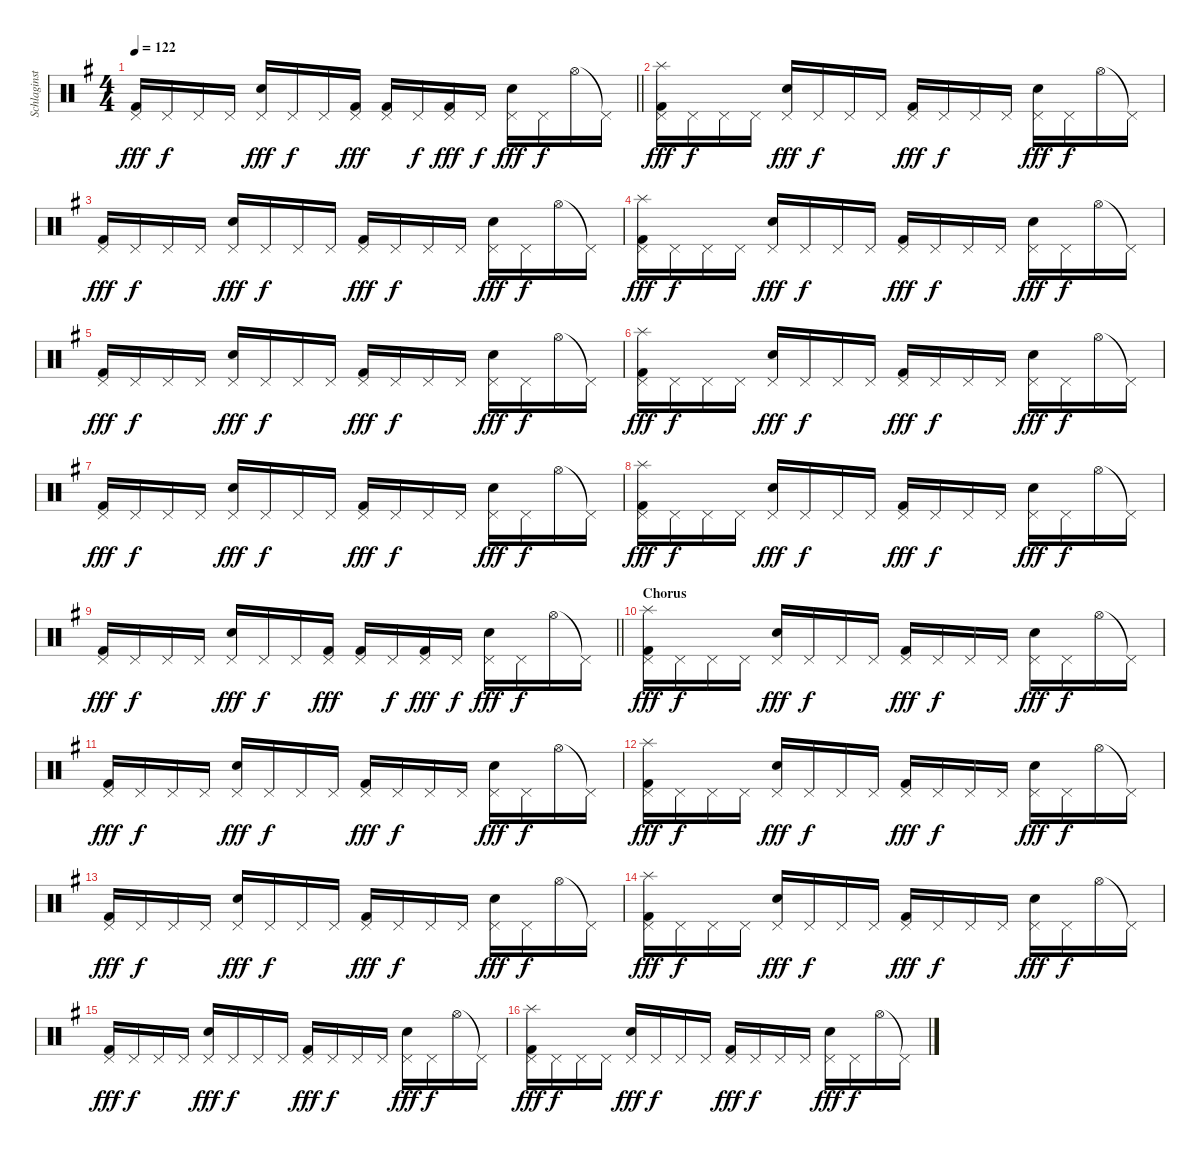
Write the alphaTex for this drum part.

\track ("Schlaginstrumente - Auswahl" "Schlaginst") {instrument percussion}
\staff {score}
\articulation defaults
\ts (4 4)
\tempo 122
\clef neutral
\barLineRight lightlight
\ks g
("Pedal Hi-Hat (hit)" "Kick (hit) 2").16{dy fff} "Pedal Hi-Hat (hit)".16{dy f} "Pedal Hi-Hat (hit)".16 "Pedal Hi-Hat (hit)".16 ("Pedal Hi-Hat (hit)" "Electric Snare (hit)").16{dy fff} "Pedal Hi-Hat (hit)".16{dy f} "Pedal Hi-Hat (hit)".16 ("Pedal Hi-Hat (hit)" "Kick (hit) 2").16{dy fff} ("Pedal Hi-Hat (hit)" "Kick (hit) 2").16 "Pedal Hi-Hat (hit)".16{dy f} ("Pedal Hi-Hat (hit)" "Kick (hit) 2").16{dy fff} "Pedal Hi-Hat (hit)".16{dy f} ("Pedal Hi-Hat (hit)" "Electric Snare (hit)").16{dy fff} "Pedal Hi-Hat (hit)".16{dy f} "Hi-Hat (open)".16 "Pedal Hi-Hat (hit)"{t}.16 |
("Splash (hit)" "Pedal Hi-Hat (hit)" "Kick (hit) 2").16{dy fff} "Pedal Hi-Hat (hit)".16{dy f} "Pedal Hi-Hat (hit)".16 "Pedal Hi-Hat (hit)".16 ("Pedal Hi-Hat (hit)" "Electric Snare (hit)").16{dy fff} "Pedal Hi-Hat (hit)".16{dy f} "Pedal Hi-Hat (hit)".16 "Pedal Hi-Hat (hit)".16 ("Pedal Hi-Hat (hit)" "Kick (hit) 2").16{dy fff} "Pedal Hi-Hat (hit)".16{dy f} "Pedal Hi-Hat (hit)".16 "Pedal Hi-Hat (hit)".16 ("Pedal Hi-Hat (hit)" "Electric Snare (hit)").16{dy fff} "Pedal Hi-Hat (hit)".16{dy f} "Hi-Hat (open)".16 "Pedal Hi-Hat (hit)"{t}.16 |
("Pedal Hi-Hat (hit)" "Kick (hit) 2").16{dy fff} "Pedal Hi-Hat (hit)".16{dy f} "Pedal Hi-Hat (hit)".16 "Pedal Hi-Hat (hit)".16 ("Pedal Hi-Hat (hit)" "Electric Snare (hit)").16{dy fff} "Pedal Hi-Hat (hit)".16{dy f} "Pedal Hi-Hat (hit)".16 "Pedal Hi-Hat (hit)".16 ("Pedal Hi-Hat (hit)" "Kick (hit) 2").16{dy fff} "Pedal Hi-Hat (hit)".16{dy f} "Pedal Hi-Hat (hit)".16 "Pedal Hi-Hat (hit)".16 ("Pedal Hi-Hat (hit)" "Electric Snare (hit)").16{dy fff} "Pedal Hi-Hat (hit)".16{dy f} "Hi-Hat (open)".16 "Pedal Hi-Hat (hit)"{t}.16 |
("Splash (hit)" "Pedal Hi-Hat (hit)" "Kick (hit) 2").16{dy fff} "Pedal Hi-Hat (hit)".16{dy f} "Pedal Hi-Hat (hit)".16 "Pedal Hi-Hat (hit)".16 ("Pedal Hi-Hat (hit)" "Electric Snare (hit)").16{dy fff} "Pedal Hi-Hat (hit)".16{dy f} "Pedal Hi-Hat (hit)".16 "Pedal Hi-Hat (hit)".16 ("Pedal Hi-Hat (hit)" "Kick (hit) 2").16{dy fff} "Pedal Hi-Hat (hit)".16{dy f} "Pedal Hi-Hat (hit)".16 "Pedal Hi-Hat (hit)".16 ("Pedal Hi-Hat (hit)" "Electric Snare (hit)").16{dy fff} "Pedal Hi-Hat (hit)".16{dy f} "Hi-Hat (open)".16 "Pedal Hi-Hat (hit)"{t}.16 |
("Pedal Hi-Hat (hit)" "Kick (hit) 2").16{dy fff} "Pedal Hi-Hat (hit)".16{dy f} "Pedal Hi-Hat (hit)".16 "Pedal Hi-Hat (hit)".16 ("Pedal Hi-Hat (hit)" "Electric Snare (hit)").16{dy fff} "Pedal Hi-Hat (hit)".16{dy f} "Pedal Hi-Hat (hit)".16 "Pedal Hi-Hat (hit)".16 ("Pedal Hi-Hat (hit)" "Kick (hit) 2").16{dy fff} "Pedal Hi-Hat (hit)".16{dy f} "Pedal Hi-Hat (hit)".16 "Pedal Hi-Hat (hit)".16 ("Pedal Hi-Hat (hit)" "Electric Snare (hit)").16{dy fff} "Pedal Hi-Hat (hit)".16{dy f} "Hi-Hat (open)".16 "Pedal Hi-Hat (hit)"{t}.16 |
("Splash (hit)" "Pedal Hi-Hat (hit)" "Kick (hit) 2").16{dy fff} "Pedal Hi-Hat (hit)".16{dy f} "Pedal Hi-Hat (hit)".16 "Pedal Hi-Hat (hit)".16 ("Pedal Hi-Hat (hit)" "Electric Snare (hit)").16{dy fff} "Pedal Hi-Hat (hit)".16{dy f} "Pedal Hi-Hat (hit)".16 "Pedal Hi-Hat (hit)".16 ("Pedal Hi-Hat (hit)" "Kick (hit) 2").16{dy fff} "Pedal Hi-Hat (hit)".16{dy f} "Pedal Hi-Hat (hit)".16 "Pedal Hi-Hat (hit)".16 ("Pedal Hi-Hat (hit)" "Electric Snare (hit)").16{dy fff} "Pedal Hi-Hat (hit)".16{dy f} "Hi-Hat (open)".16 "Pedal Hi-Hat (hit)"{t}.16 |
("Pedal Hi-Hat (hit)" "Kick (hit) 2").16{dy fff} "Pedal Hi-Hat (hit)".16{dy f} "Pedal Hi-Hat (hit)".16 "Pedal Hi-Hat (hit)".16 ("Pedal Hi-Hat (hit)" "Electric Snare (hit)").16{dy fff} "Pedal Hi-Hat (hit)".16{dy f} "Pedal Hi-Hat (hit)".16 "Pedal Hi-Hat (hit)".16 ("Pedal Hi-Hat (hit)" "Kick (hit) 2").16{dy fff} "Pedal Hi-Hat (hit)".16{dy f} "Pedal Hi-Hat (hit)".16 "Pedal Hi-Hat (hit)".16 ("Pedal Hi-Hat (hit)" "Electric Snare (hit)").16{dy fff} "Pedal Hi-Hat (hit)".16{dy f} "Hi-Hat (open)".16 "Pedal Hi-Hat (hit)"{t}.16 |
("Splash (hit)" "Pedal Hi-Hat (hit)" "Kick (hit) 2").16{dy fff} "Pedal Hi-Hat (hit)".16{dy f} "Pedal Hi-Hat (hit)".16 "Pedal Hi-Hat (hit)".16 ("Pedal Hi-Hat (hit)" "Electric Snare (hit)").16{dy fff} "Pedal Hi-Hat (hit)".16{dy f} "Pedal Hi-Hat (hit)".16 "Pedal Hi-Hat (hit)".16 ("Pedal Hi-Hat (hit)" "Kick (hit) 2").16{dy fff} "Pedal Hi-Hat (hit)".16{dy f} "Pedal Hi-Hat (hit)".16 "Pedal Hi-Hat (hit)".16 ("Pedal Hi-Hat (hit)" "Electric Snare (hit)").16{dy fff} "Pedal Hi-Hat (hit)".16{dy f} "Hi-Hat (open)".16 "Pedal Hi-Hat (hit)"{t}.16 |
\barLineRight lightlight
("Pedal Hi-Hat (hit)" "Kick (hit) 2").16{dy fff} "Pedal Hi-Hat (hit)".16{dy f} "Pedal Hi-Hat (hit)".16 "Pedal Hi-Hat (hit)".16 ("Pedal Hi-Hat (hit)" "Electric Snare (hit)").16{dy fff} "Pedal Hi-Hat (hit)".16{dy f} "Pedal Hi-Hat (hit)".16 ("Pedal Hi-Hat (hit)" "Kick (hit) 2").16{dy fff} ("Pedal Hi-Hat (hit)" "Kick (hit) 2").16 "Pedal Hi-Hat (hit)".16{dy f} ("Pedal Hi-Hat (hit)" "Kick (hit) 2").16{dy fff} "Pedal Hi-Hat (hit)".16{dy f} ("Pedal Hi-Hat (hit)" "Electric Snare (hit)").16{dy fff} "Pedal Hi-Hat (hit)".16{dy f} "Hi-Hat (open)".16 "Pedal Hi-Hat (hit)"{t}.16 |
\section ("" "Chorus")
("Splash (hit)" "Pedal Hi-Hat (hit)" "Kick (hit) 2").16{dy fff} "Pedal Hi-Hat (hit)".16{dy f} "Pedal Hi-Hat (hit)".16 "Pedal Hi-Hat (hit)".16 ("Pedal Hi-Hat (hit)" "Electric Snare (hit)").16{dy fff} "Pedal Hi-Hat (hit)".16{dy f} "Pedal Hi-Hat (hit)".16 "Pedal Hi-Hat (hit)".16 ("Pedal Hi-Hat (hit)" "Kick (hit) 2").16{dy fff} "Pedal Hi-Hat (hit)".16{dy f} "Pedal Hi-Hat (hit)".16 "Pedal Hi-Hat (hit)".16 ("Pedal Hi-Hat (hit)" "Electric Snare (hit)").16{dy fff} "Pedal Hi-Hat (hit)".16{dy f} "Hi-Hat (open)".16 "Pedal Hi-Hat (hit)"{t}.16 |
("Pedal Hi-Hat (hit)" "Kick (hit) 2").16{dy fff} "Pedal Hi-Hat (hit)".16{dy f} "Pedal Hi-Hat (hit)".16 "Pedal Hi-Hat (hit)".16 ("Pedal Hi-Hat (hit)" "Electric Snare (hit)").16{dy fff} "Pedal Hi-Hat (hit)".16{dy f} "Pedal Hi-Hat (hit)".16 "Pedal Hi-Hat (hit)".16 ("Pedal Hi-Hat (hit)" "Kick (hit) 2").16{dy fff} "Pedal Hi-Hat (hit)".16{dy f} "Pedal Hi-Hat (hit)".16 "Pedal Hi-Hat (hit)".16 ("Pedal Hi-Hat (hit)" "Electric Snare (hit)").16{dy fff} "Pedal Hi-Hat (hit)".16{dy f} "Hi-Hat (open)".16 "Pedal Hi-Hat (hit)"{t}.16 |
("Splash (hit)" "Pedal Hi-Hat (hit)" "Kick (hit) 2").16{dy fff} "Pedal Hi-Hat (hit)".16{dy f} "Pedal Hi-Hat (hit)".16 "Pedal Hi-Hat (hit)".16 ("Pedal Hi-Hat (hit)" "Electric Snare (hit)").16{dy fff} "Pedal Hi-Hat (hit)".16{dy f} "Pedal Hi-Hat (hit)".16 "Pedal Hi-Hat (hit)".16 ("Pedal Hi-Hat (hit)" "Kick (hit) 2").16{dy fff} "Pedal Hi-Hat (hit)".16{dy f} "Pedal Hi-Hat (hit)".16 "Pedal Hi-Hat (hit)".16 ("Pedal Hi-Hat (hit)" "Electric Snare (hit)").16{dy fff} "Pedal Hi-Hat (hit)".16{dy f} "Hi-Hat (open)".16 "Pedal Hi-Hat (hit)"{t}.16 |
("Pedal Hi-Hat (hit)" "Kick (hit) 2").16{dy fff} "Pedal Hi-Hat (hit)".16{dy f} "Pedal Hi-Hat (hit)".16 "Pedal Hi-Hat (hit)".16 ("Pedal Hi-Hat (hit)" "Electric Snare (hit)").16{dy fff} "Pedal Hi-Hat (hit)".16{dy f} "Pedal Hi-Hat (hit)".16 "Pedal Hi-Hat (hit)".16 ("Pedal Hi-Hat (hit)" "Kick (hit) 2").16{dy fff} "Pedal Hi-Hat (hit)".16{dy f} "Pedal Hi-Hat (hit)".16 "Pedal Hi-Hat (hit)".16 ("Pedal Hi-Hat (hit)" "Electric Snare (hit)").16{dy fff} "Pedal Hi-Hat (hit)".16{dy f} "Hi-Hat (open)".16 "Pedal Hi-Hat (hit)"{t}.16 |
("Splash (hit)" "Pedal Hi-Hat (hit)" "Kick (hit) 2").16{dy fff} "Pedal Hi-Hat (hit)".16{dy f} "Pedal Hi-Hat (hit)".16 "Pedal Hi-Hat (hit)".16 ("Pedal Hi-Hat (hit)" "Electric Snare (hit)").16{dy fff} "Pedal Hi-Hat (hit)".16{dy f} "Pedal Hi-Hat (hit)".16 "Pedal Hi-Hat (hit)".16 ("Pedal Hi-Hat (hit)" "Kick (hit) 2").16{dy fff} "Pedal Hi-Hat (hit)".16{dy f} "Pedal Hi-Hat (hit)".16 "Pedal Hi-Hat (hit)".16 ("Pedal Hi-Hat (hit)" "Electric Snare (hit)").16{dy fff} "Pedal Hi-Hat (hit)".16{dy f} "Hi-Hat (open)".16 "Pedal Hi-Hat (hit)"{t}.16 |
("Pedal Hi-Hat (hit)" "Kick (hit) 2").16{dy fff} "Pedal Hi-Hat (hit)".16{dy f} "Pedal Hi-Hat (hit)".16 "Pedal Hi-Hat (hit)".16 ("Pedal Hi-Hat (hit)" "Electric Snare (hit)").16{dy fff} "Pedal Hi-Hat (hit)".16{dy f} "Pedal Hi-Hat (hit)".16 "Pedal Hi-Hat (hit)".16 ("Pedal Hi-Hat (hit)" "Kick (hit) 2").16{dy fff} "Pedal Hi-Hat (hit)".16{dy f} "Pedal Hi-Hat (hit)".16 "Pedal Hi-Hat (hit)".16 ("Pedal Hi-Hat (hit)" "Electric Snare (hit)").16{dy fff} "Pedal Hi-Hat (hit)".16{dy f} "Hi-Hat (open)".16 "Pedal Hi-Hat (hit)"{t}.16 |
("Splash (hit)" "Pedal Hi-Hat (hit)" "Kick (hit) 2").16{dy fff} "Pedal Hi-Hat (hit)".16{dy f} "Pedal Hi-Hat (hit)".16 "Pedal Hi-Hat (hit)".16 ("Pedal Hi-Hat (hit)" "Electric Snare (hit)").16{dy fff} "Pedal Hi-Hat (hit)".16{dy f} "Pedal Hi-Hat (hit)".16 "Pedal Hi-Hat (hit)".16 ("Pedal Hi-Hat (hit)" "Kick (hit) 2").16{dy fff} "Pedal Hi-Hat (hit)".16{dy f} "Pedal Hi-Hat (hit)".16 "Pedal Hi-Hat (hit)".16 ("Pedal Hi-Hat (hit)" "Electric Snare (hit)").16{dy fff} "Pedal Hi-Hat (hit)".16{dy f} "Hi-Hat (open)".16 "Pedal Hi-Hat (hit)"{t}.16
